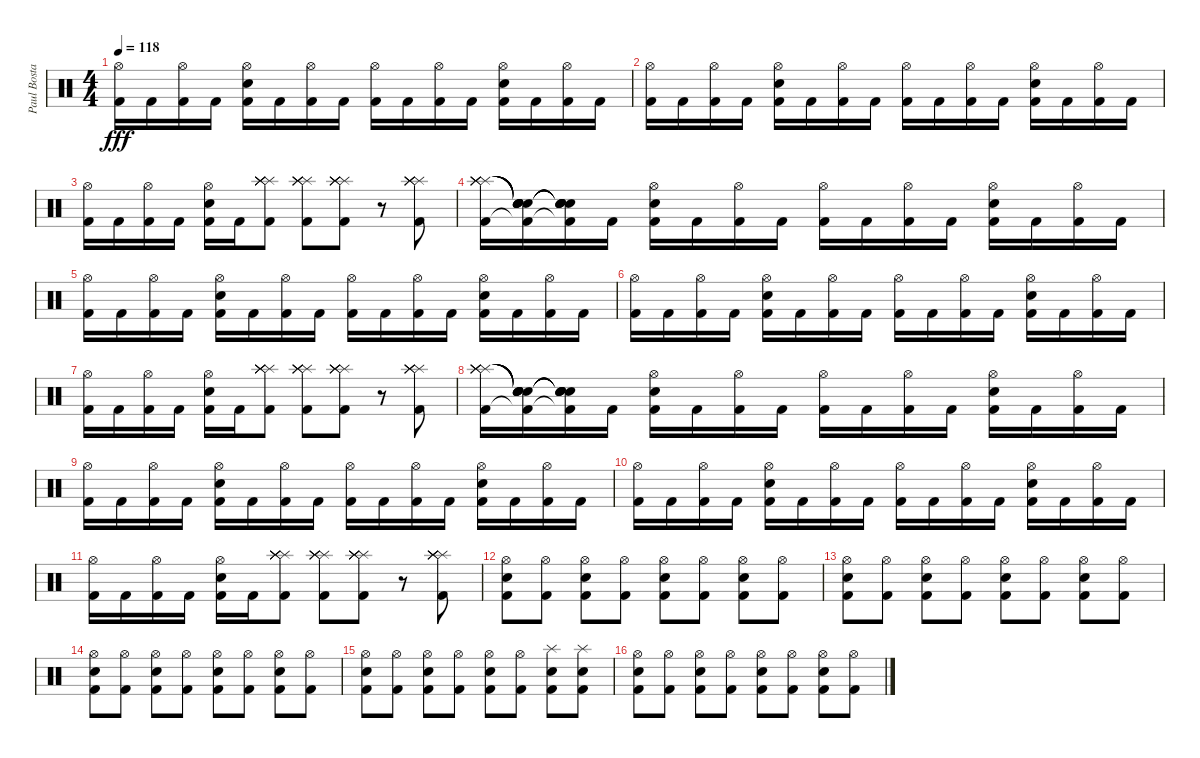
\track ("Paul Bostaph" "Paul Bosta") {instrument percussion}
\staff {score}
\articulation defaults
\ts (4 4)
\tempo 118
\clef neutral
\ks c
("Hi-Hat (open)" "Kick (hit) 2").16{dy fff} "Kick (hit) 2".16 ("Hi-Hat (open)" "Kick (hit) 2").16 "Kick (hit) 2".16 ("Hi-Hat (open)" "Snare (hit) 2" "Kick (hit) 2").16 "Kick (hit) 2".16 ("Hi-Hat (open)" "Kick (hit) 2").16 "Kick (hit) 2".16 ("Hi-Hat (open)" "Kick (hit) 2").16 "Kick (hit) 2".16 ("Hi-Hat (open)" "Kick (hit) 2").16 "Kick (hit) 2".16 ("Hi-Hat (open)" "Snare (hit) 2" "Kick (hit) 2").16 "Kick (hit) 2".16 ("Hi-Hat (open)" "Kick (hit) 2").16 "Kick (hit) 2".16 |
("Hi-Hat (open)" "Kick (hit) 2").16 "Kick (hit) 2".16 ("Hi-Hat (open)" "Kick (hit) 2").16 "Kick (hit) 2".16 ("Hi-Hat (open)" "Snare (hit) 2" "Kick (hit) 2").16 "Kick (hit) 2".16 ("Hi-Hat (open)" "Kick (hit) 2").16 "Kick (hit) 2".16 ("Hi-Hat (open)" "Kick (hit) 2").16 "Kick (hit) 2".16 ("Hi-Hat (open)" "Kick (hit) 2").16 "Kick (hit) 2".16 ("Hi-Hat (open)" "Snare (hit) 2" "Kick (hit) 2").16 "Kick (hit) 2".16 ("Hi-Hat (open)" "Kick (hit) 2").16 "Kick (hit) 2".16 |
("Hi-Hat (open)" "Kick (hit) 2").16 "Kick (hit) 2".16 ("Hi-Hat (open)" "Kick (hit) 2").16 "Kick (hit) 2".16 ("Hi-Hat (open)" "Snare (hit) 2" "Kick (hit) 2").16 "Kick (hit) 2".16 ("Splash (hit)" "Splash (hit)" "Splash (hit)" "Splash (hit)" "Splash (hit)" "Kick (hit) 2").8 ("Splash (hit)" "Splash (hit)" "Splash (hit)" "Splash (hit)" "Splash (hit)" "Kick (hit) 2").8 ("Splash (hit)" "Splash (hit)" "Splash (hit)" "Splash (hit)" "Splash (hit)" "Kick (hit) 2").8 r.8 ("Splash (hit)" "Splash (hit)" "Splash (hit)" "Splash (hit)" "Splash (hit)" "Kick (hit) 2").8 |
("Splash (hit)" "Splash (hit)" "Splash (hit)" "Splash (hit)" "Splash (hit)" "Kick (hit) 2").16 ("Snare (hit)"{t} "Snare (hit)"{t} "Snare (hit)"{t} "Snare (hit)"{t} "Snare (hit)"{t} "Kick (hit) 2"{t}).16 ("Snare (hit)"{t} "Snare (hit)"{t} "Snare (hit)"{t} "Snare (hit)"{t} "Snare (hit)"{t} "Kick (hit) 2"{t}).16 "Kick (hit) 2".16 ("Hi-Hat (open)" "Snare (hit) 2" "Kick (hit) 2").16 "Kick (hit) 2".16 ("Hi-Hat (open)" "Kick (hit) 2").16 "Kick (hit) 2".16 ("Hi-Hat (open)" "Kick (hit) 2").16 "Kick (hit) 2".16 ("Hi-Hat (open)" "Kick (hit) 2").16 "Kick (hit) 2".16 ("Hi-Hat (open)" "Snare (hit) 2" "Kick (hit) 2").16 "Kick (hit) 2".16 ("Hi-Hat (open)" "Kick (hit) 2").16 "Kick (hit) 2".16 |
("Hi-Hat (open)" "Kick (hit) 2").16 "Kick (hit) 2".16 ("Hi-Hat (open)" "Kick (hit) 2").16 "Kick (hit) 2".16 ("Hi-Hat (open)" "Snare (hit) 2" "Kick (hit) 2").16 "Kick (hit) 2".16 ("Hi-Hat (open)" "Kick (hit) 2").16 "Kick (hit) 2".16 ("Hi-Hat (open)" "Kick (hit) 2").16 "Kick (hit) 2".16 ("Hi-Hat (open)" "Kick (hit) 2").16 "Kick (hit) 2".16 ("Hi-Hat (open)" "Snare (hit) 2" "Kick (hit) 2").16 "Kick (hit) 2".16 ("Hi-Hat (open)" "Kick (hit) 2").16 "Kick (hit) 2".16 |
("Hi-Hat (open)" "Kick (hit) 2").16 "Kick (hit) 2".16 ("Hi-Hat (open)" "Kick (hit) 2").16 "Kick (hit) 2".16 ("Hi-Hat (open)" "Snare (hit) 2" "Kick (hit) 2").16 "Kick (hit) 2".16 ("Hi-Hat (open)" "Kick (hit) 2").16 "Kick (hit) 2".16 ("Hi-Hat (open)" "Kick (hit) 2").16 "Kick (hit) 2".16 ("Hi-Hat (open)" "Kick (hit) 2").16 "Kick (hit) 2".16 ("Hi-Hat (open)" "Snare (hit) 2" "Kick (hit) 2").16 "Kick (hit) 2".16 ("Hi-Hat (open)" "Kick (hit) 2").16 "Kick (hit) 2".16 |
("Hi-Hat (open)" "Kick (hit) 2").16 "Kick (hit) 2".16 ("Hi-Hat (open)" "Kick (hit) 2").16 "Kick (hit) 2".16 ("Hi-Hat (open)" "Snare (hit) 2" "Kick (hit) 2").16 "Kick (hit) 2".16 ("Splash (hit)" "Splash (hit)" "Splash (hit)" "Splash (hit)" "Splash (hit)" "Kick (hit) 2").8 ("Splash (hit)" "Splash (hit)" "Splash (hit)" "Splash (hit)" "Splash (hit)" "Kick (hit) 2").8 ("Splash (hit)" "Splash (hit)" "Splash (hit)" "Splash (hit)" "Splash (hit)" "Kick (hit) 2").8 r.8 ("Splash (hit)" "Splash (hit)" "Splash (hit)" "Splash (hit)" "Splash (hit)" "Kick (hit) 2").8 |
("Splash (hit)" "Splash (hit)" "Splash (hit)" "Splash (hit)" "Splash (hit)" "Kick (hit) 2").16 ("Snare (hit)"{t} "Snare (hit)"{t} "Snare (hit)"{t} "Snare (hit)"{t} "Snare (hit)"{t} "Kick (hit) 2"{t}).16 ("Snare (hit)"{t} "Snare (hit)"{t} "Snare (hit)"{t} "Snare (hit)"{t} "Snare (hit)"{t} "Kick (hit) 2"{t}).16 "Kick (hit) 2".16 ("Hi-Hat (open)" "Snare (hit) 2" "Kick (hit) 2").16 "Kick (hit) 2".16 ("Hi-Hat (open)" "Kick (hit) 2").16 "Kick (hit) 2".16 ("Hi-Hat (open)" "Kick (hit) 2").16 "Kick (hit) 2".16 ("Hi-Hat (open)" "Kick (hit) 2").16 "Kick (hit) 2".16 ("Hi-Hat (open)" "Snare (hit) 2" "Kick (hit) 2").16 "Kick (hit) 2".16 ("Hi-Hat (open)" "Kick (hit) 2").16 "Kick (hit) 2".16 |
("Hi-Hat (open)" "Kick (hit) 2").16 "Kick (hit) 2".16 ("Hi-Hat (open)" "Kick (hit) 2").16 "Kick (hit) 2".16 ("Hi-Hat (open)" "Snare (hit) 2" "Kick (hit) 2").16 "Kick (hit) 2".16 ("Hi-Hat (open)" "Kick (hit) 2").16 "Kick (hit) 2".16 ("Hi-Hat (open)" "Kick (hit) 2").16 "Kick (hit) 2".16 ("Hi-Hat (open)" "Kick (hit) 2").16 "Kick (hit) 2".16 ("Hi-Hat (open)" "Snare (hit) 2" "Kick (hit) 2").16 "Kick (hit) 2".16 ("Hi-Hat (open)" "Kick (hit) 2").16 "Kick (hit) 2".16 |
("Hi-Hat (open)" "Kick (hit) 2").16 "Kick (hit) 2".16 ("Hi-Hat (open)" "Kick (hit) 2").16 "Kick (hit) 2".16 ("Hi-Hat (open)" "Snare (hit) 2" "Kick (hit) 2").16 "Kick (hit) 2".16 ("Hi-Hat (open)" "Kick (hit) 2").16 "Kick (hit) 2".16 ("Hi-Hat (open)" "Kick (hit) 2").16 "Kick (hit) 2".16 ("Hi-Hat (open)" "Kick (hit) 2").16 "Kick (hit) 2".16 ("Hi-Hat (open)" "Snare (hit) 2" "Kick (hit) 2").16 "Kick (hit) 2".16 ("Hi-Hat (open)" "Kick (hit) 2").16 "Kick (hit) 2".16 |
("Hi-Hat (open)" "Kick (hit) 2").16 "Kick (hit) 2".16 ("Hi-Hat (open)" "Kick (hit) 2").16 "Kick (hit) 2".16 ("Hi-Hat (open)" "Snare (hit) 2" "Kick (hit) 2").16 "Kick (hit) 2".16 ("Splash (hit)" "Splash (hit)" "Splash (hit)" "Splash (hit)" "Splash (hit)" "Kick (hit) 2").8 ("Splash (hit)" "Splash (hit)" "Splash (hit)" "Splash (hit)" "Splash (hit)" "Kick (hit) 2").8 ("Splash (hit)" "Splash (hit)" "Splash (hit)" "Splash (hit)" "Splash (hit)" "Kick (hit) 2").8 r.8 ("Splash (hit)" "Splash (hit)" "Splash (hit)" "Splash (hit)" "Splash (hit)" "Kick (hit) 2").8 |
("Hi-Hat (open)" "Snare (hit) 2" "Kick (hit) 2").8 ("Hi-Hat (open)" "Kick (hit) 2").8 ("Hi-Hat (open)" "Snare (hit) 2" "Kick (hit) 2").8 ("Hi-Hat (open)" "Kick (hit) 2").8 ("Hi-Hat (open)" "Snare (hit) 2" "Kick (hit) 2").8 ("Hi-Hat (open)" "Kick (hit) 2").8 ("Hi-Hat (open)" "Snare (hit) 2" "Kick (hit) 2").8 ("Hi-Hat (open)" "Kick (hit) 2").8 |
("Hi-Hat (open)" "Snare (hit) 2" "Kick (hit) 2").8 ("Hi-Hat (open)" "Kick (hit) 2").8 ("Hi-Hat (open)" "Snare (hit) 2" "Kick (hit) 2").8 ("Hi-Hat (open)" "Kick (hit) 2").8 ("Hi-Hat (open)" "Snare (hit) 2" "Kick (hit) 2").8 ("Hi-Hat (open)" "Kick (hit) 2").8 ("Hi-Hat (open)" "Snare (hit) 2" "Kick (hit) 2").8 ("Hi-Hat (open)" "Kick (hit) 2").8 |
("Hi-Hat (open)" "Snare (hit) 2" "Kick (hit) 2").8 ("Hi-Hat (open)" "Kick (hit) 2").8 ("Hi-Hat (open)" "Snare (hit) 2" "Kick (hit) 2").8 ("Hi-Hat (open)" "Kick (hit) 2").8 ("Hi-Hat (open)" "Snare (hit) 2" "Kick (hit) 2").8 ("Hi-Hat (open)" "Kick (hit) 2").8 ("Hi-Hat (open)" "Snare (hit) 2" "Kick (hit) 2").8 ("Hi-Hat (open)" "Kick (hit) 2").8 |
("Hi-Hat (open)" "Snare (hit) 2" "Kick (hit) 2").8 ("Hi-Hat (open)" "Kick (hit) 2").8 ("Hi-Hat (open)" "Snare (hit) 2" "Kick (hit) 2").8 ("Hi-Hat (open)" "Kick (hit) 2").8 ("Hi-Hat (open)" "Snare (hit) 2" "Kick (hit) 2").8 ("Hi-Hat (open)" "Kick (hit) 2").8 ("Splash (hit)" "Snare (hit) 2" "Kick (hit) 2").8 ("Splash (hit)" "Snare (hit) 2" "Kick (hit) 2").8 |
("Hi-Hat (open)" "Snare (hit) 2" "Kick (hit) 2").8 ("Hi-Hat (open)" "Kick (hit) 2").8 ("Hi-Hat (open)" "Snare (hit) 2" "Kick (hit) 2").8 ("Hi-Hat (open)" "Kick (hit) 2").8 ("Hi-Hat (open)" "Snare (hit) 2" "Kick (hit) 2").8 ("Hi-Hat (open)" "Kick (hit) 2").8 ("Hi-Hat (open)" "Snare (hit) 2" "Kick (hit) 2").8 ("Hi-Hat (open)" "Kick (hit) 2").8
